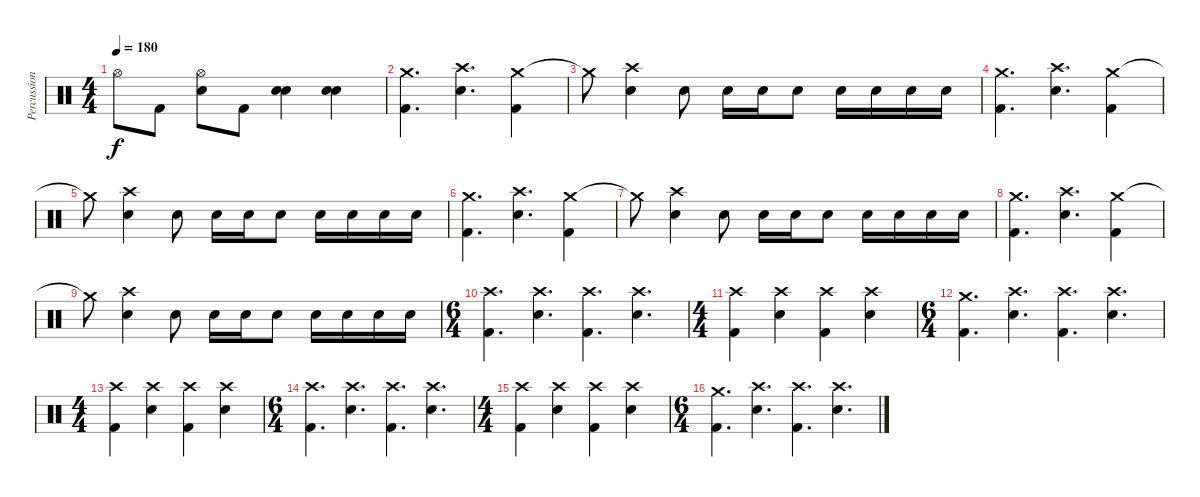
\track ("Percussion" "Percussion") {instrument percussion}
\staff {score}
\articulation defaults
\ts (4 4)
\tempo 180
\clef neutral
\ks c "Hi-Hat (open)".8{dy f} "Kick (hit) 2".8
("Hi-Hat (open)" "Snare (hit) 2").8 "Kick (hit) 2".8 ("Snare (hit) 2" "Snare (hit) 2").4 ("Snare (hit) 2" "Snare (hit) 2").4 |
("Crash medium (hit)" "Kick (hit) 2").4{d} ("Crash high (hit)" "Snare (hit) 2").4{d} ("Crash medium (hit)" "Kick (hit) 2").4 |
"Crash medium (hit)"{t}.8 ("Crash high (hit)" "Snare (hit) 2").4 "Snare (hit) 2".8 "Snare (hit) 2".16 "Snare (hit) 2".16 "Snare (hit) 2".8 "Snare (hit) 2".16 "Snare (hit) 2".16 "Snare (hit) 2".16 "Snare (hit) 2".16 |
("Crash medium (hit)" "Kick (hit) 2").4{d} ("Crash high (hit)" "Snare (hit) 2").4{d} ("Crash medium (hit)" "Kick (hit) 2").4 |
"Crash medium (hit)"{t}.8 ("Crash high (hit)" "Snare (hit) 2").4 "Snare (hit) 2".8 "Snare (hit) 2".16 "Snare (hit) 2".16 "Snare (hit) 2".8 "Snare (hit) 2".16 "Snare (hit) 2".16 "Snare (hit) 2".16 "Snare (hit) 2".16 |
("Crash medium (hit)" "Kick (hit) 2").4{d} ("Crash high (hit)" "Snare (hit) 2").4{d} ("Crash medium (hit)" "Kick (hit) 2").4 |
"Crash medium (hit)"{t}.8 ("Crash high (hit)" "Snare (hit) 2").4 "Snare (hit) 2".8 "Snare (hit) 2".16 "Snare (hit) 2".16 "Snare (hit) 2".8 "Snare (hit) 2".16 "Snare (hit) 2".16 "Snare (hit) 2".16 "Snare (hit) 2".16 |
("Crash medium (hit)" "Kick (hit) 2").4{d} ("Crash high (hit)" "Snare (hit) 2").4{d} ("Crash medium (hit)" "Kick (hit) 2").4 |
"Crash medium (hit)"{t}.8 ("Crash high (hit)" "Snare (hit) 2").4 "Snare (hit) 2".8 "Snare (hit) 2".16 "Snare (hit) 2".16 "Snare (hit) 2".8 "Snare (hit) 2".16 "Snare (hit) 2".16 "Snare (hit) 2".16 "Snare (hit) 2".16 |
\ts (6 4)
("Crash high (hit)" "Kick (hit) 2").4{d} ("Crash high (hit)" "Snare (hit) 2").4{d} ("Crash high (hit)" "Kick (hit) 2").4{d} ("Crash high (hit)" "Snare (hit) 2").4{d} |
\ts (4 4)
("Crash high (hit)" "Kick (hit) 2").4 ("Crash high (hit)" "Snare (hit) 2").4 ("Crash high (hit)" "Kick (hit) 2").4 ("Crash high (hit)" "Snare (hit) 2").4 |
\ts (6 4)
("Crash medium (hit)" "Kick (hit) 2").4{d} ("Crash high (hit)" "Snare (hit) 2").4{d} ("Crash high (hit)" "Kick (hit) 2").4{d} ("Crash high (hit)" "Snare (hit) 2").4{d} |
\ts (4 4)
("Crash high (hit)" "Kick (hit) 2").4 ("Crash high (hit)" "Snare (hit) 2").4 ("Crash high (hit)" "Kick (hit) 2").4 ("Crash high (hit)" "Snare (hit) 2").4 |
\ts (6 4)
("Crash high (hit)" "Kick (hit) 2").4{d} ("Crash high (hit)" "Snare (hit) 2").4{d} ("Crash high (hit)" "Kick (hit) 2").4{d} ("Crash high (hit)" "Snare (hit) 2").4{d} |
\ts (4 4)
("Crash high (hit)" "Kick (hit) 2").4 ("Crash high (hit)" "Snare (hit) 2").4 ("Crash high (hit)" "Kick (hit) 2").4 ("Crash high (hit)" "Snare (hit) 2").4 |
\ts (6 4)
("Crash medium (hit)" "Kick (hit) 2").4{d} ("Crash high (hit)" "Snare (hit) 2").4{d} ("Crash high (hit)" "Kick (hit) 2").4{d} ("Crash high (hit)" "Snare (hit) 2").4{d}
